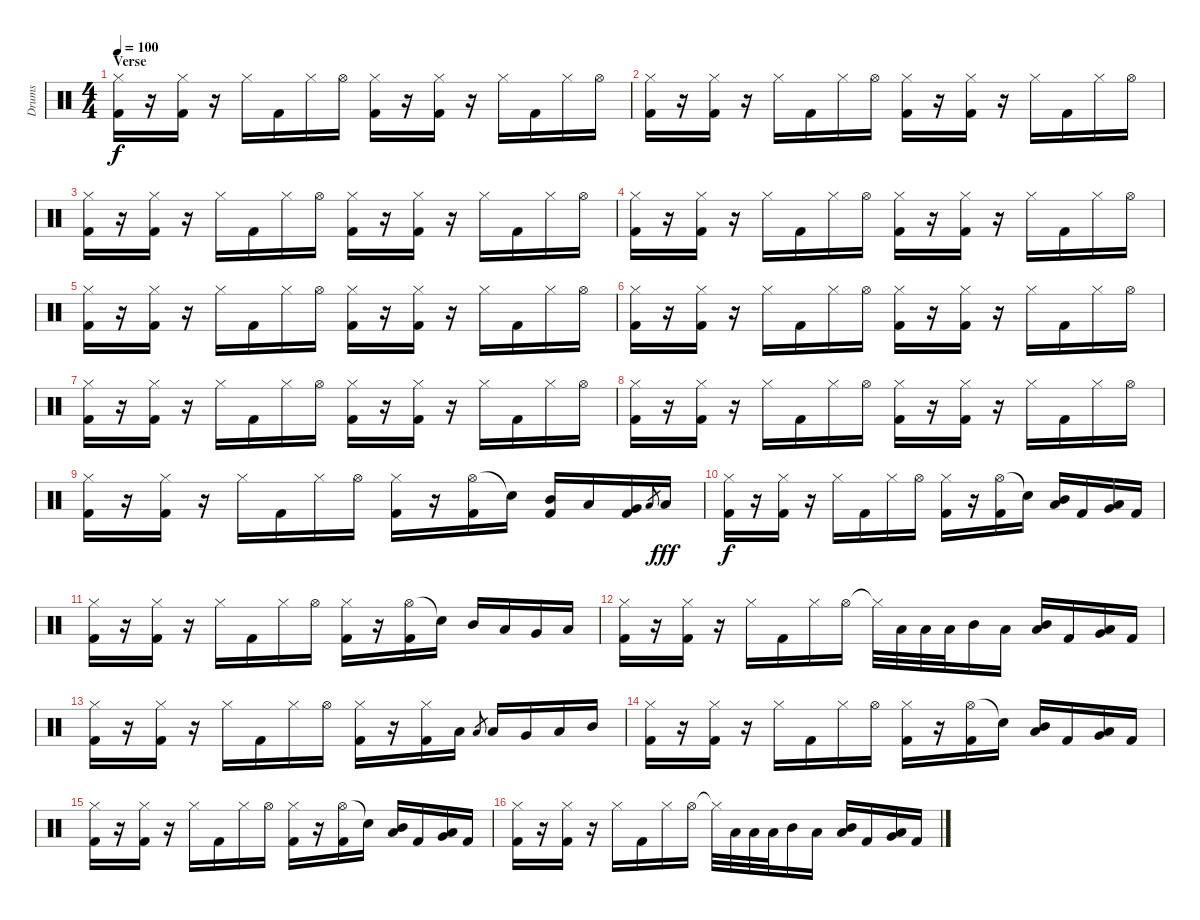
\track ("Drums" "Drums") {instrument percussion}
\staff {score}
\articulation defaults
\ts (4 4)
\section ("" "Verse")
\tempo 100
\clef neutral
\ks c
("Hi-Hat (closed)" "Kick (hit) 2").16{dy f} r.16 ("Hi-Hat (closed)" "Kick (hit) 2").16 r.16 "Hi-Hat (closed)".16 "Kick (hit) 2".16 "Hi-Hat (closed)".16 "Hi-Hat (open)".16 ("Hi-Hat (closed)" "Kick (hit) 2").16 r.16 ("Hi-Hat (closed)" "Kick (hit) 2").16 r.16 "Hi-Hat (closed)".16 "Kick (hit) 2".16 "Hi-Hat (closed)".16 "Hi-Hat (open)".16 |
("Hi-Hat (closed)" "Kick (hit) 2").16 r.16 ("Hi-Hat (closed)" "Kick (hit) 2").16 r.16 "Hi-Hat (closed)".16 "Kick (hit) 2".16 "Hi-Hat (closed)".16 "Hi-Hat (open)".16 ("Hi-Hat (closed)" "Kick (hit) 2").16 r.16 ("Hi-Hat (closed)" "Kick (hit) 2").16 r.16 "Hi-Hat (closed)".16 "Kick (hit) 2".16 "Hi-Hat (closed)".16 "Hi-Hat (open)".16 |
("Hi-Hat (closed)" "Kick (hit) 2").16 r.16 ("Hi-Hat (closed)" "Kick (hit) 2").16 r.16 "Hi-Hat (closed)".16 "Kick (hit) 2".16 "Hi-Hat (closed)".16 "Hi-Hat (open)".16 ("Hi-Hat (closed)" "Kick (hit) 2").16 r.16 ("Hi-Hat (closed)" "Kick (hit) 2").16 r.16 "Hi-Hat (closed)".16 "Kick (hit) 2".16 "Hi-Hat (closed)".16 "Hi-Hat (open)".16 |
("Hi-Hat (closed)" "Kick (hit) 2").16 r.16 ("Hi-Hat (closed)" "Kick (hit) 2").16 r.16 "Hi-Hat (closed)".16 "Kick (hit) 2".16 "Hi-Hat (closed)".16 "Hi-Hat (open)".16 ("Hi-Hat (closed)" "Kick (hit) 2").16 r.16 ("Hi-Hat (closed)" "Kick (hit) 2").16 r.16 "Hi-Hat (closed)".16 "Kick (hit) 2".16 "Hi-Hat (closed)".16 "Hi-Hat (open)".16 |
("Hi-Hat (closed)" "Kick (hit) 2").16 r.16 ("Hi-Hat (closed)" "Kick (hit) 2").16 r.16 "Hi-Hat (closed)".16 "Kick (hit) 2".16 "Hi-Hat (closed)".16 "Hi-Hat (open)".16 ("Hi-Hat (closed)" "Kick (hit) 2").16 r.16 ("Hi-Hat (closed)" "Kick (hit) 2").16 r.16 "Hi-Hat (closed)".16 "Kick (hit) 2".16 "Hi-Hat (closed)".16 "Hi-Hat (open)".16 |
("Hi-Hat (closed)" "Kick (hit) 2").16 r.16 ("Hi-Hat (closed)" "Kick (hit) 2").16 r.16 "Hi-Hat (closed)".16 "Kick (hit) 2".16 "Hi-Hat (closed)".16 "Hi-Hat (open)".16 ("Hi-Hat (closed)" "Kick (hit) 2").16 r.16 ("Hi-Hat (closed)" "Kick (hit) 2").16 r.16 "Hi-Hat (closed)".16 "Kick (hit) 2".16 "Hi-Hat (closed)".16 "Hi-Hat (open)".16 |
("Hi-Hat (closed)" "Kick (hit) 2").16 r.16 ("Hi-Hat (closed)" "Kick (hit) 2").16 r.16 "Hi-Hat (closed)".16 "Kick (hit) 2".16 "Hi-Hat (closed)".16 "Hi-Hat (open)".16 ("Hi-Hat (closed)" "Kick (hit) 2").16 r.16 ("Hi-Hat (closed)" "Kick (hit) 2").16 r.16 "Hi-Hat (closed)".16 "Kick (hit) 2".16 "Hi-Hat (closed)".16 "Hi-Hat (open)".16 |
("Hi-Hat (closed)" "Kick (hit) 2").16 r.16 ("Hi-Hat (closed)" "Kick (hit) 2").16 r.16 "Hi-Hat (closed)".16 "Kick (hit) 2".16 "Hi-Hat (closed)".16 "Hi-Hat (open)".16 ("Hi-Hat (closed)" "Kick (hit) 2").16 r.16 ("Hi-Hat (closed)" "Kick (hit) 2").16 r.16 "Hi-Hat (closed)".16 "Kick (hit) 2".16 "Hi-Hat (closed)".16 "Hi-Hat (open)".16 |
("Hi-Hat (closed)" "Kick (hit) 2").16 r.16 ("Hi-Hat (closed)" "Kick (hit) 2").16 r.16 "Hi-Hat (closed)".16 "Kick (hit) 2".16 "Hi-Hat (closed)".16 "Hi-Hat (open)".16 ("Hi-Hat (closed)" "Kick (hit) 2").16 r.16 ("Hi-Hat (open)" "Kick (hit) 2").16 "Snare (hit)"{t}.16 ("Mid Tom (hit)" "Kick (hit) 2").16 "Low Tom (hit)".16 ("Very Low Tom (hit)" "Kick (hit) 2").16 "Low Floor Tom (hit)".8{gr} "Low Floor Tom (hit)".16{dy fff} |
("Hi-Hat (closed)" "Kick (hit) 2").16{dy f} r.16 ("Hi-Hat (closed)" "Kick (hit) 2").16 r.16 "Hi-Hat (closed)".16 "Kick (hit) 2".16 "Hi-Hat (closed)".16 "Hi-Hat (open)".16 ("Hi-Hat (closed)" "Kick (hit) 2").16 r.16 ("Hi-Hat (open)" "Kick (hit) 2").16 "Snare (hit)"{t}.16 ("Mid Tom (hit)" "Low Tom (hit)").16 "Kick (hit) 2".16 ("Low Tom (hit)" "Very Low Tom (hit)").16 "Kick (hit) 2".16 |
("Hi-Hat (closed)" "Kick (hit) 2").16 r.16 ("Hi-Hat (closed)" "Kick (hit) 2").16 r.16 "Hi-Hat (closed)".16 "Kick (hit) 2".16 "Hi-Hat (closed)".16 "Hi-Hat (open)".16 ("Hi-Hat (closed)" "Kick (hit) 2").16 r.16 ("Hi-Hat (open)" "Kick (hit) 2").16 "Snare (hit)"{t}.16 "Mid Tom (hit)".16 "Low Tom (hit)".16 "Very Low Tom (hit)".16 "Low Floor Tom (hit)".16 |
("Hi-Hat (closed)" "Kick (hit) 2").16 r.16 ("Hi-Hat (closed)" "Kick (hit) 2").16 r.16 "Hi-Hat (closed)".16 "Kick (hit) 2".16 "Hi-Hat (closed)".16 "Hi-Hat (open)".16 "Hi-Hat (closed)"{t}.32 "Low Tom (hit)".32 "Low Tom (hit)".32 "Low Tom (hit)".32 "Mid Tom (hit)".16 "Low Tom (hit)".16 ("Mid Tom (hit)" "Low Tom (hit)").16 "Kick (hit) 2".16 ("Low Tom (hit)" "Very Low Tom (hit)").16 "Kick (hit) 2".16 |
("Hi-Hat (closed)" "Kick (hit) 2").16 r.16 ("Hi-Hat (closed)" "Kick (hit) 2").16 r.16 "Hi-Hat (closed)".16 "Kick (hit) 2".16 "Hi-Hat (closed)".16 "Hi-Hat (open)".16 ("Hi-Hat (closed)" "Kick (hit) 2").16 r.16 ("Hi-Hat (closed)" "Kick (hit) 2").16 "Low Floor Tom (hit)".16 "Low Floor Tom (hit)".8{gr} "Low Floor Tom (hit)".16 "Very Low Tom (hit)".16 "Low Tom (hit)".16 "Mid Tom (hit)".16 |
("Hi-Hat (closed)" "Kick (hit) 2").16 r.16 ("Hi-Hat (closed)" "Kick (hit) 2").16 r.16 "Hi-Hat (closed)".16 "Kick (hit) 2".16 "Hi-Hat (closed)".16 "Hi-Hat (open)".16 ("Hi-Hat (closed)" "Kick (hit) 2").16 r.16 ("Hi-Hat (open)" "Kick (hit) 2").16 "Snare (hit)"{t}.16 ("Mid Tom (hit)" "Low Tom (hit)").16 "Kick (hit) 2".16 ("Low Tom (hit)" "Very Low Tom (hit)").16 "Kick (hit) 2".16 |
("Hi-Hat (closed)" "Kick (hit) 2").16 r.16 ("Hi-Hat (closed)" "Kick (hit) 2").16 r.16 "Hi-Hat (closed)".16 "Kick (hit) 2".16 "Hi-Hat (closed)".16 "Hi-Hat (open)".16 ("Hi-Hat (closed)" "Kick (hit) 2").16 r.16 ("Hi-Hat (open)" "Kick (hit) 2").16 "Snare (hit)"{t}.16 ("Mid Tom (hit)" "Low Tom (hit)").16 "Kick (hit) 2".16 ("Low Tom (hit)" "Very Low Tom (hit)").16 "Kick (hit) 2".16 |
("Hi-Hat (closed)" "Kick (hit) 2").16 r.16 ("Hi-Hat (closed)" "Kick (hit) 2").16 r.16 "Hi-Hat (closed)".16 "Kick (hit) 2".16 "Hi-Hat (closed)".16 "Hi-Hat (open)".16 "Hi-Hat (closed)"{t}.32 "Low Tom (hit)".32 "Low Tom (hit)".32 "Low Tom (hit)".32 "Mid Tom (hit)".16 "Low Tom (hit)".16 ("Mid Tom (hit)" "Low Tom (hit)").16 "Kick (hit) 2".16 ("Low Tom (hit)" "Very Low Tom (hit)").16 "Kick (hit) 2".16
